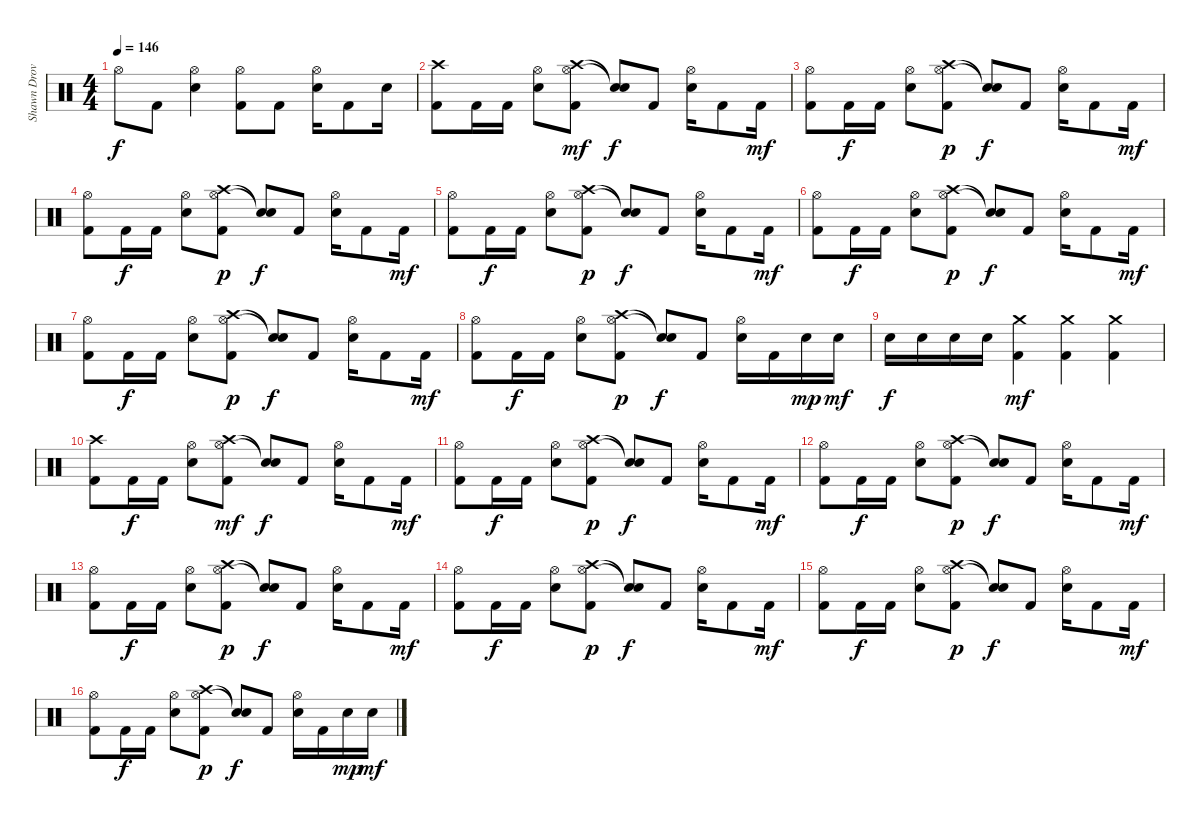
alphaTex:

\track ("Shawn Drover" "Shawn Drov") {instrument percussion}
\staff {score}
\articulation defaults
\ts (4 4)
\tempo 146
\clef neutral
\ks c "Hi-Hat (open)".8{dy f} "Kick (hit) 2".8
("Hi-Hat (open)" "Snare (hit) 2").4 ("Hi-Hat (open)" "Kick (hit) 2").8 "Kick (hit) 2".8 ("Hi-Hat (open)" "Snare (hit) 2").16 "Kick (hit) 2".8 "Snare (hit) 2".16 |
("Crash high (hit)" "Kick (hit) 2").8 "Kick (hit) 2".16 "Kick (hit) 2".16 ("Hi-Hat (open)" "Snare (hit) 2").8 ("Hi-Hat (open)" "Crash high (hit)" "Kick (hit) 2").8{dy mf} ("Snare (hit)"{t} "Snare (hit)"{t}).8{dy f} "Kick (hit) 2".8 ("Hi-Hat (open)" "Snare (hit) 2").16 "Kick (hit) 2".8 "Kick (hit) 2".16{dy mf} |
("Hi-Hat (open)" "Kick (hit) 2").8 "Kick (hit) 2".16{dy f} "Kick (hit) 2".16 ("Hi-Hat (open)" "Snare (hit) 2").8 ("Hi-Hat (open)" "Crash high (hit)" "Kick (hit) 2").8{dy p} ("Snare (hit)"{t} "Snare (hit)"{t}).8{dy f} "Kick (hit) 2".8 ("Hi-Hat (open)" "Snare (hit) 2").16 "Kick (hit) 2".8 "Kick (hit) 2".16{dy mf} |
("Hi-Hat (open)" "Kick (hit) 2").8 "Kick (hit) 2".16{dy f} "Kick (hit) 2".16 ("Hi-Hat (open)" "Snare (hit) 2").8 ("Hi-Hat (open)" "Crash high (hit)" "Kick (hit) 2").8{dy p} ("Snare (hit)"{t} "Snare (hit)"{t}).8{dy f} "Kick (hit) 2".8 ("Hi-Hat (open)" "Snare (hit) 2").16 "Kick (hit) 2".8 "Kick (hit) 2".16{dy mf} |
("Hi-Hat (open)" "Kick (hit) 2").8 "Kick (hit) 2".16{dy f} "Kick (hit) 2".16 ("Hi-Hat (open)" "Snare (hit) 2").8 ("Hi-Hat (open)" "Crash high (hit)" "Kick (hit) 2").8{dy p} ("Snare (hit)"{t} "Snare (hit)"{t}).8{dy f} "Kick (hit) 2".8 ("Hi-Hat (open)" "Snare (hit) 2").16 "Kick (hit) 2".8 "Kick (hit) 2".16{dy mf} |
("Hi-Hat (open)" "Kick (hit) 2").8 "Kick (hit) 2".16{dy f} "Kick (hit) 2".16 ("Hi-Hat (open)" "Snare (hit) 2").8 ("Hi-Hat (open)" "Crash high (hit)" "Kick (hit) 2").8{dy p} ("Snare (hit)"{t} "Snare (hit)"{t}).8{dy f} "Kick (hit) 2".8 ("Hi-Hat (open)" "Snare (hit) 2").16 "Kick (hit) 2".8 "Kick (hit) 2".16{dy mf} |
("Hi-Hat (open)" "Kick (hit) 2").8 "Kick (hit) 2".16{dy f} "Kick (hit) 2".16 ("Hi-Hat (open)" "Snare (hit) 2").8 ("Hi-Hat (open)" "Crash high (hit)" "Kick (hit) 2").8{dy p} ("Snare (hit)"{t} "Snare (hit)"{t}).8{dy f} "Kick (hit) 2".8 ("Hi-Hat (open)" "Snare (hit) 2").16 "Kick (hit) 2".8 "Kick (hit) 2".16{dy mf} |
("Hi-Hat (open)" "Kick (hit) 2").8 "Kick (hit) 2".16{dy f} "Kick (hit) 2".16 ("Hi-Hat (open)" "Snare (hit) 2").8 ("Hi-Hat (open)" "Crash high (hit)" "Kick (hit) 2").8{dy p} ("Snare (hit)"{t} "Snare (hit)"{t}).8{dy f} "Kick (hit) 2".8 ("Hi-Hat (open)" "Snare (hit) 2").16 "Kick (hit) 2".16 "Snare (hit) 2".16{dy mp} "Snare (hit) 2".16{dy mf} |
"Snare (hit) 2".16{dy f} "Snare (hit) 2".16 "Snare (hit) 2".16 "Snare (hit) 2".16 ("Crash medium (hit)" "Kick (hit) 2").4{dy mf} ("Crash medium (hit)" "Kick (hit) 2").4 ("Crash medium (hit)" "Kick (hit) 2").4 |
("Crash high (hit)" "Kick (hit) 2").8 "Kick (hit) 2".16{dy f} "Kick (hit) 2".16 ("Hi-Hat (open)" "Snare (hit) 2").8 ("Hi-Hat (open)" "Crash high (hit)" "Kick (hit) 2").8{dy mf} ("Snare (hit)"{t} "Snare (hit)"{t}).8{dy f} "Kick (hit) 2".8 ("Hi-Hat (open)" "Snare (hit) 2").16 "Kick (hit) 2".8 "Kick (hit) 2".16{dy mf} |
("Hi-Hat (open)" "Kick (hit) 2").8 "Kick (hit) 2".16{dy f} "Kick (hit) 2".16 ("Hi-Hat (open)" "Snare (hit) 2").8 ("Hi-Hat (open)" "Crash high (hit)" "Kick (hit) 2").8{dy p} ("Snare (hit)"{t} "Snare (hit)"{t}).8{dy f} "Kick (hit) 2".8 ("Hi-Hat (open)" "Snare (hit) 2").16 "Kick (hit) 2".8 "Kick (hit) 2".16{dy mf} |
("Hi-Hat (open)" "Kick (hit) 2").8 "Kick (hit) 2".16{dy f} "Kick (hit) 2".16 ("Hi-Hat (open)" "Snare (hit) 2").8 ("Hi-Hat (open)" "Crash high (hit)" "Kick (hit) 2").8{dy p} ("Snare (hit)"{t} "Snare (hit)"{t}).8{dy f} "Kick (hit) 2".8 ("Hi-Hat (open)" "Snare (hit) 2").16 "Kick (hit) 2".8 "Kick (hit) 2".16{dy mf} |
("Hi-Hat (open)" "Kick (hit) 2").8 "Kick (hit) 2".16{dy f} "Kick (hit) 2".16 ("Hi-Hat (open)" "Snare (hit) 2").8 ("Hi-Hat (open)" "Crash high (hit)" "Kick (hit) 2").8{dy p} ("Snare (hit)"{t} "Snare (hit)"{t}).8{dy f} "Kick (hit) 2".8 ("Hi-Hat (open)" "Snare (hit) 2").16 "Kick (hit) 2".8 "Kick (hit) 2".16{dy mf} |
("Hi-Hat (open)" "Kick (hit) 2").8 "Kick (hit) 2".16{dy f} "Kick (hit) 2".16 ("Hi-Hat (open)" "Snare (hit) 2").8 ("Hi-Hat (open)" "Crash high (hit)" "Kick (hit) 2").8{dy p} ("Snare (hit)"{t} "Snare (hit)"{t}).8{dy f} "Kick (hit) 2".8 ("Hi-Hat (open)" "Snare (hit) 2").16 "Kick (hit) 2".8 "Kick (hit) 2".16{dy mf} |
("Hi-Hat (open)" "Kick (hit) 2").8 "Kick (hit) 2".16{dy f} "Kick (hit) 2".16 ("Hi-Hat (open)" "Snare (hit) 2").8 ("Hi-Hat (open)" "Crash high (hit)" "Kick (hit) 2").8{dy p} ("Snare (hit)"{t} "Snare (hit)"{t}).8{dy f} "Kick (hit) 2".8 ("Hi-Hat (open)" "Snare (hit) 2").16 "Kick (hit) 2".8 "Kick (hit) 2".16{dy mf} |
("Hi-Hat (open)" "Kick (hit) 2").8 "Kick (hit) 2".16{dy f} "Kick (hit) 2".16 ("Hi-Hat (open)" "Snare (hit) 2").8 ("Hi-Hat (open)" "Crash high (hit)" "Kick (hit) 2").8{dy p} ("Snare (hit)"{t} "Snare (hit)"{t}).8{dy f} "Kick (hit) 2".8 ("Hi-Hat (open)" "Snare (hit) 2").16 "Kick (hit) 2".16 "Snare (hit) 2".16{dy mp} "Snare (hit) 2".16{dy mf}
